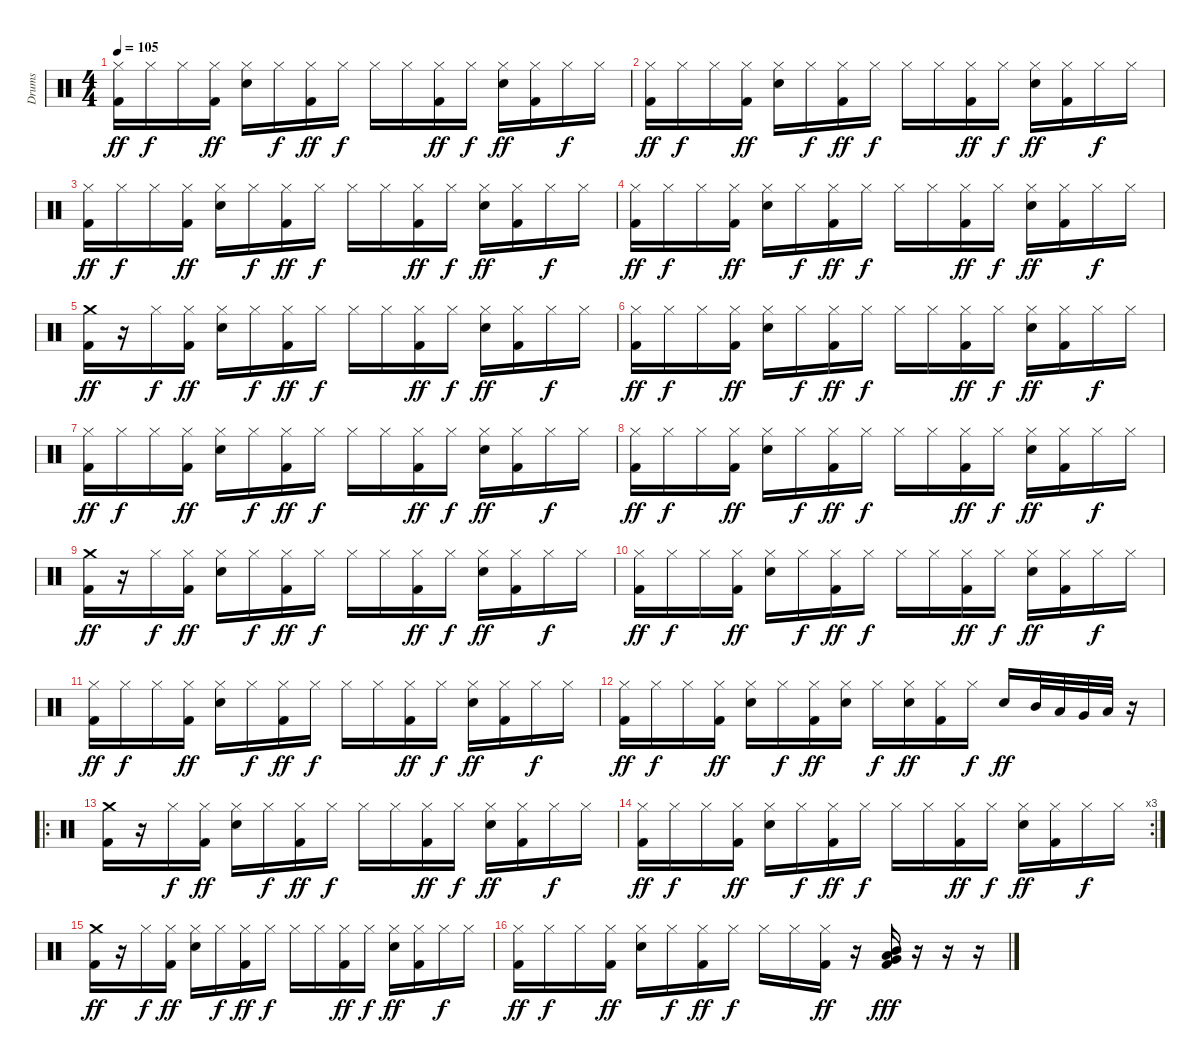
\track ("Drums" "Drums") {instrument percussion}
\staff {score}
\articulation defaults
\ts (4 4)
\tempo 105
\clef neutral
\ks c
("Hi-Hat (closed)" "Kick (hit) 2").16{dy ff} "Hi-Hat (closed)".16{dy f} "Hi-Hat (closed)".16 ("Hi-Hat (closed)" "Kick (hit) 2").16{dy ff} ("Hi-Hat (closed)" "Electric Snare (hit)").16 "Hi-Hat (closed)".16{dy f} ("Hi-Hat (closed)" "Kick (hit) 2").16{dy ff} "Hi-Hat (closed)".16{dy f} "Hi-Hat (closed)".16 "Hi-Hat (closed)".16 ("Hi-Hat (closed)" "Kick (hit) 2").16{dy ff} "Hi-Hat (closed)".16{dy f} ("Hi-Hat (closed)" "Electric Snare (hit)").16{dy ff} ("Hi-Hat (closed)" "Kick (hit) 2").16 "Hi-Hat (closed)".16{dy f} "Hi-Hat (closed)".16 |
("Hi-Hat (closed)" "Kick (hit) 2").16{dy ff} "Hi-Hat (closed)".16{dy f} "Hi-Hat (closed)".16 ("Hi-Hat (closed)" "Kick (hit) 2").16{dy ff} ("Hi-Hat (closed)" "Electric Snare (hit)").16 "Hi-Hat (closed)".16{dy f} ("Hi-Hat (closed)" "Kick (hit) 2").16{dy ff} "Hi-Hat (closed)".16{dy f} "Hi-Hat (closed)".16 "Hi-Hat (closed)".16 ("Hi-Hat (closed)" "Kick (hit) 2").16{dy ff} "Hi-Hat (closed)".16{dy f} ("Hi-Hat (closed)" "Electric Snare (hit)").16{dy ff} ("Hi-Hat (closed)" "Kick (hit) 2").16 "Hi-Hat (closed)".16{dy f} "Hi-Hat (closed)".16 |
("Hi-Hat (closed)" "Kick (hit) 2").16{dy ff} "Hi-Hat (closed)".16{dy f} "Hi-Hat (closed)".16 ("Hi-Hat (closed)" "Kick (hit) 2").16{dy ff} ("Hi-Hat (closed)" "Electric Snare (hit)").16 "Hi-Hat (closed)".16{dy f} ("Hi-Hat (closed)" "Kick (hit) 2").16{dy ff} "Hi-Hat (closed)".16{dy f} "Hi-Hat (closed)".16 "Hi-Hat (closed)".16 ("Hi-Hat (closed)" "Kick (hit) 2").16{dy ff} "Hi-Hat (closed)".16{dy f} ("Hi-Hat (closed)" "Electric Snare (hit)").16{dy ff} ("Hi-Hat (closed)" "Kick (hit) 2").16 "Hi-Hat (closed)".16{dy f} "Hi-Hat (closed)".16 |
("Hi-Hat (closed)" "Kick (hit) 2").16{dy ff} "Hi-Hat (closed)".16{dy f} "Hi-Hat (closed)".16 ("Hi-Hat (closed)" "Kick (hit) 2").16{dy ff} ("Hi-Hat (closed)" "Electric Snare (hit)").16 "Hi-Hat (closed)".16{dy f} ("Hi-Hat (closed)" "Kick (hit) 2").16{dy ff} "Hi-Hat (closed)".16{dy f} "Hi-Hat (closed)".16 "Hi-Hat (closed)".16 ("Hi-Hat (closed)" "Kick (hit) 2").16{dy ff} "Hi-Hat (closed)".16{dy f} ("Hi-Hat (closed)" "Electric Snare (hit)").16{dy ff} ("Hi-Hat (closed)" "Kick (hit) 2").16 "Hi-Hat (closed)".16{dy f} "Hi-Hat (closed)".16 |
("Crash medium (hit)" "Kick (hit) 2").16{dy ff} r.16 "Hi-Hat (closed)".16{dy f} ("Hi-Hat (closed)" "Kick (hit) 2").16{dy ff} ("Hi-Hat (closed)" "Electric Snare (hit)").16 "Hi-Hat (closed)".16{dy f} ("Hi-Hat (closed)" "Kick (hit) 2").16{dy ff} "Hi-Hat (closed)".16{dy f} "Hi-Hat (closed)".16 "Hi-Hat (closed)".16 ("Hi-Hat (closed)" "Kick (hit) 2").16{dy ff} "Hi-Hat (closed)".16{dy f} ("Hi-Hat (closed)" "Electric Snare (hit)").16{dy ff} ("Hi-Hat (closed)" "Kick (hit) 2").16 "Hi-Hat (closed)".16{dy f} "Hi-Hat (closed)".16 |
("Hi-Hat (closed)" "Kick (hit) 2").16{dy ff} "Hi-Hat (closed)".16{dy f} "Hi-Hat (closed)".16 ("Hi-Hat (closed)" "Kick (hit) 2").16{dy ff} ("Hi-Hat (closed)" "Electric Snare (hit)").16 "Hi-Hat (closed)".16{dy f} ("Hi-Hat (closed)" "Kick (hit) 2").16{dy ff} "Hi-Hat (closed)".16{dy f} "Hi-Hat (closed)".16 "Hi-Hat (closed)".16 ("Hi-Hat (closed)" "Kick (hit) 2").16{dy ff} "Hi-Hat (closed)".16{dy f} ("Hi-Hat (closed)" "Electric Snare (hit)").16{dy ff} ("Hi-Hat (closed)" "Kick (hit) 2").16 "Hi-Hat (closed)".16{dy f} "Hi-Hat (closed)".16 |
("Hi-Hat (closed)" "Kick (hit) 2").16{dy ff} "Hi-Hat (closed)".16{dy f} "Hi-Hat (closed)".16 ("Hi-Hat (closed)" "Kick (hit) 2").16{dy ff} ("Hi-Hat (closed)" "Electric Snare (hit)").16 "Hi-Hat (closed)".16{dy f} ("Hi-Hat (closed)" "Kick (hit) 2").16{dy ff} "Hi-Hat (closed)".16{dy f} "Hi-Hat (closed)".16 "Hi-Hat (closed)".16 ("Hi-Hat (closed)" "Kick (hit) 2").16{dy ff} "Hi-Hat (closed)".16{dy f} ("Hi-Hat (closed)" "Electric Snare (hit)").16{dy ff} ("Hi-Hat (closed)" "Kick (hit) 2").16 "Hi-Hat (closed)".16{dy f} "Hi-Hat (closed)".16 |
("Hi-Hat (closed)" "Kick (hit) 2").16{dy ff} "Hi-Hat (closed)".16{dy f} "Hi-Hat (closed)".16 ("Hi-Hat (closed)" "Kick (hit) 2").16{dy ff} ("Hi-Hat (closed)" "Electric Snare (hit)").16 "Hi-Hat (closed)".16{dy f} ("Hi-Hat (closed)" "Kick (hit) 2").16{dy ff} "Hi-Hat (closed)".16{dy f} "Hi-Hat (closed)".16 "Hi-Hat (closed)".16 ("Hi-Hat (closed)" "Kick (hit) 2").16{dy ff} "Hi-Hat (closed)".16{dy f} ("Hi-Hat (closed)" "Electric Snare (hit)").16{dy ff} ("Hi-Hat (closed)" "Kick (hit) 2").16 "Hi-Hat (closed)".16{dy f} "Hi-Hat (closed)".16 |
("Crash medium (hit)" "Kick (hit) 2").16{dy ff} r.16 "Hi-Hat (closed)".16{dy f} ("Hi-Hat (closed)" "Kick (hit) 2").16{dy ff} ("Hi-Hat (closed)" "Electric Snare (hit)").16 "Hi-Hat (closed)".16{dy f} ("Hi-Hat (closed)" "Kick (hit) 2").16{dy ff} "Hi-Hat (closed)".16{dy f} "Hi-Hat (closed)".16 "Hi-Hat (closed)".16 ("Hi-Hat (closed)" "Kick (hit) 2").16{dy ff} "Hi-Hat (closed)".16{dy f} ("Hi-Hat (closed)" "Electric Snare (hit)").16{dy ff} ("Hi-Hat (closed)" "Kick (hit) 2").16 "Hi-Hat (closed)".16{dy f} "Hi-Hat (closed)".16 |
("Hi-Hat (closed)" "Kick (hit) 2").16{dy ff} "Hi-Hat (closed)".16{dy f} "Hi-Hat (closed)".16 ("Hi-Hat (closed)" "Kick (hit) 2").16{dy ff} ("Hi-Hat (closed)" "Electric Snare (hit)").16 "Hi-Hat (closed)".16{dy f} ("Hi-Hat (closed)" "Kick (hit) 2").16{dy ff} "Hi-Hat (closed)".16{dy f} "Hi-Hat (closed)".16 "Hi-Hat (closed)".16 ("Hi-Hat (closed)" "Kick (hit) 2").16{dy ff} "Hi-Hat (closed)".16{dy f} ("Hi-Hat (closed)" "Electric Snare (hit)").16{dy ff} ("Hi-Hat (closed)" "Kick (hit) 2").16 "Hi-Hat (closed)".16{dy f} "Hi-Hat (closed)".16 |
("Hi-Hat (closed)" "Kick (hit) 2").16{dy ff} "Hi-Hat (closed)".16{dy f} "Hi-Hat (closed)".16 ("Hi-Hat (closed)" "Kick (hit) 2").16{dy ff} ("Hi-Hat (closed)" "Electric Snare (hit)").16 "Hi-Hat (closed)".16{dy f} ("Hi-Hat (closed)" "Kick (hit) 2").16{dy ff} "Hi-Hat (closed)".16{dy f} "Hi-Hat (closed)".16 "Hi-Hat (closed)".16 ("Hi-Hat (closed)" "Kick (hit) 2").16{dy ff} "Hi-Hat (closed)".16{dy f} ("Hi-Hat (closed)" "Electric Snare (hit)").16{dy ff} ("Hi-Hat (closed)" "Kick (hit) 2").16 "Hi-Hat (closed)".16{dy f} "Hi-Hat (closed)".16 |
("Hi-Hat (closed)" "Kick (hit) 2").16{dy ff} "Hi-Hat (closed)".16{dy f} "Hi-Hat (closed)".16 ("Hi-Hat (closed)" "Kick (hit) 2").16{dy ff} ("Hi-Hat (closed)" "Electric Snare (hit)").16 "Hi-Hat (closed)".16{dy f} ("Hi-Hat (closed)" "Kick (hit) 2").16{dy ff} ("Hi-Hat (closed)" "Electric Snare (hit)").16 "Hi-Hat (closed)".16{dy f} ("Hi-Hat (closed)" "Electric Snare (hit)").16{dy ff} ("Hi-Hat (closed)" "Kick (hit) 2").16 "Hi-Hat (closed)".16{dy f} "Electric Snare (hit)".16{dy ff} "Mid Tom (hit)".32 "Low Tom (hit)".32 "Very Low Tom (hit)".32 "Low Floor Tom (hit)".32 r.16 |
\ro
("Crash medium (hit)" "Kick (hit) 2").16 r.16 "Hi-Hat (closed)".16{dy f} ("Hi-Hat (closed)" "Kick (hit) 2").16{dy ff} ("Hi-Hat (closed)" "Electric Snare (hit)").16 "Hi-Hat (closed)".16{dy f} ("Hi-Hat (closed)" "Kick (hit) 2").16{dy ff} "Hi-Hat (closed)".16{dy f} "Hi-Hat (closed)".16 "Hi-Hat (closed)".16 ("Hi-Hat (closed)" "Kick (hit) 2").16{dy ff} "Hi-Hat (closed)".16{dy f} ("Hi-Hat (closed)" "Electric Snare (hit)").16{dy ff} ("Hi-Hat (closed)" "Kick (hit) 2").16 "Hi-Hat (closed)".16{dy f} "Hi-Hat (closed)".16 |
\rc 3
("Hi-Hat (closed)" "Kick (hit) 2").16{dy ff} "Hi-Hat (closed)".16{dy f} "Hi-Hat (closed)".16 ("Hi-Hat (closed)" "Kick (hit) 2").16{dy ff} ("Hi-Hat (closed)" "Electric Snare (hit)").16 "Hi-Hat (closed)".16{dy f} ("Hi-Hat (closed)" "Kick (hit) 2").16{dy ff} "Hi-Hat (closed)".16{dy f} "Hi-Hat (closed)".16 "Hi-Hat (closed)".16 ("Hi-Hat (closed)" "Kick (hit) 2").16{dy ff} "Hi-Hat (closed)".16{dy f} ("Hi-Hat (closed)" "Electric Snare (hit)").16{dy ff} ("Hi-Hat (closed)" "Kick (hit) 2").16 "Hi-Hat (closed)".16{dy f} "Hi-Hat (closed)".16 |
("Crash medium (hit)" "Kick (hit) 2").16{dy ff} r.16 "Hi-Hat (closed)".16{dy f} ("Hi-Hat (closed)" "Kick (hit) 2").16{dy ff} ("Hi-Hat (closed)" "Electric Snare (hit)").16 "Hi-Hat (closed)".16{dy f} ("Hi-Hat (closed)" "Kick (hit) 2").16{dy ff} "Hi-Hat (closed)".16{dy f} "Hi-Hat (closed)".16 "Hi-Hat (closed)".16 ("Hi-Hat (closed)" "Kick (hit) 2").16{dy ff} "Hi-Hat (closed)".16{dy f} ("Hi-Hat (closed)" "Electric Snare (hit)").16{dy ff} ("Hi-Hat (closed)" "Kick (hit) 2").16 "Hi-Hat (closed)".16{dy f} "Hi-Hat (closed)".16 |
("Hi-Hat (closed)" "Kick (hit) 2").16{dy ff} "Hi-Hat (closed)".16{dy f} "Hi-Hat (closed)".16 ("Hi-Hat (closed)" "Kick (hit) 2").16{dy ff} ("Hi-Hat (closed)" "Electric Snare (hit)").16 "Hi-Hat (closed)".16{dy f} ("Hi-Hat (closed)" "Kick (hit) 2").16{dy ff} "Hi-Hat (closed)".16{dy f} "Hi-Hat (closed)".16 "Hi-Hat (closed)".16 ("Hi-Hat (closed)" "Kick (hit) 2").16{dy ff} r.16 ("Very Low Tom (hit)" "Low Tom (hit)" "Mid Tom (hit)" "Kick (hit) 2").16{dy fff} r.16 r.16 r.16
